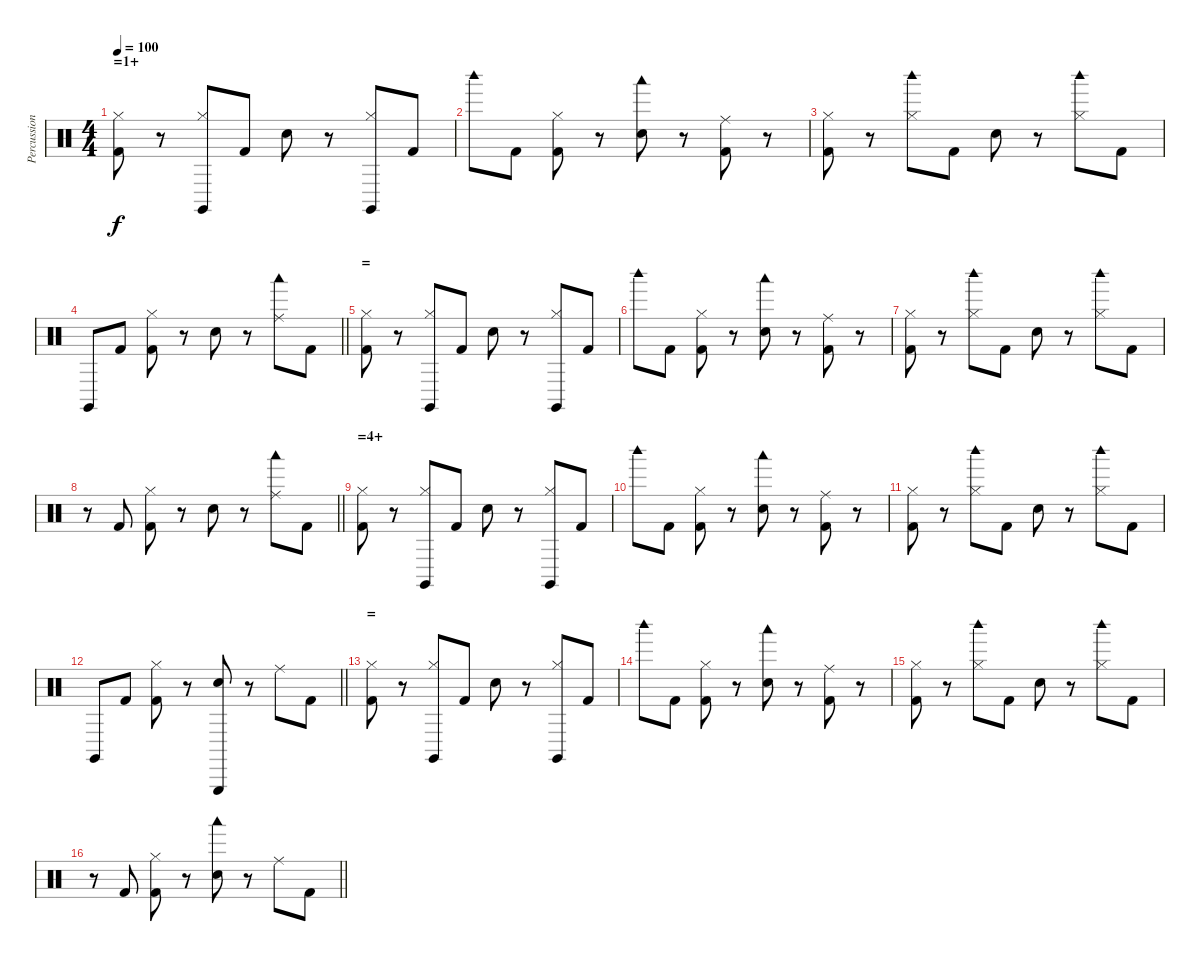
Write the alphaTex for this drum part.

\track ("Percussion" "Percussion") {instrument percussion}
\staff {score}
\articulation defaults
\ts (4 4)
\section ("" "=1+")
\tempo 100
\clef neutral
\ks c
("Kick (hit) 2" "Hi-Hat (closed)").8{dy f} r.8 ("Claves (hit)" "Hi-Hat (closed)").8 "Kick (hit) 2".8 "Electric Snare (hit)".8 r.8 ("Claves (hit)" "Hi-Hat (closed)").8 "Kick (hit) 2".8 |
"Woodblock high (hit)".8 "Kick (hit) 2".8 ("Kick (hit) 2" "Hi-Hat (closed)").8 r.8 ("Electric Snare (hit)" "Woodblock low (hit)").8 r.8 ("Kick (hit) 2" "Ride (middle)").8 r.8 |
("Kick (hit) 2" "Hi-Hat (closed)").8 r.8 ("Woodblock high (hit)" "Hi-Hat (closed)").8 "Kick (hit) 2".8 "Electric Snare (hit)".8 r.8 ("Woodblock high (hit)" "Hi-Hat (closed)").8 "Kick (hit) 2".8 |
\barLineRight lightlight "Claves (hit)".8 "Kick (hit) 2".8
("Kick (hit) 2" "Hi-Hat (closed)").8 r.8 "Electric Snare (hit)".8 r.8 ("Woodblock low (hit)" "Ride (middle)").8 "Kick (hit) 2".8 |
\section ("" "=")
("Kick (hit) 2" "Hi-Hat (closed)").8 r.8 ("Claves (hit)" "Hi-Hat (closed)").8 "Kick (hit) 2".8 "Electric Snare (hit)".8 r.8 ("Claves (hit)" "Hi-Hat (closed)").8 "Kick (hit) 2".8 |
"Woodblock high (hit)".8 "Kick (hit) 2".8 ("Kick (hit) 2" "Hi-Hat (closed)").8 r.8 ("Electric Snare (hit)" "Woodblock low (hit)").8 r.8 ("Kick (hit) 2" "Ride (middle)").8 r.8 |
("Kick (hit) 2" "Hi-Hat (closed)").8 r.8 ("Woodblock high (hit)" "Hi-Hat (closed)").8 "Kick (hit) 2".8 "Electric Snare (hit)".8 r.8 ("Woodblock high (hit)" "Hi-Hat (closed)").8 "Kick (hit) 2".8 |
\barLineRight lightlight
r.8 "Kick (hit) 2".8 ("Kick (hit) 2" "Hi-Hat (closed)").8 r.8 "Electric Snare (hit)".8 r.8 ("Woodblock low (hit)" "Ride (middle)").8 "Kick (hit) 2".8 |
\section ("" "=4+")
("Kick (hit) 2" "Hi-Hat (closed)").8 r.8 ("Claves (hit)" "Hi-Hat (closed)").8 "Kick (hit) 2".8 "Electric Snare (hit)".8 r.8 ("Claves (hit)" "Hi-Hat (closed)").8 "Kick (hit) 2".8 |
"Woodblock high (hit)".8 "Kick (hit) 2".8 ("Kick (hit) 2" "Hi-Hat (closed)").8 r.8 ("Electric Snare (hit)" "Woodblock low (hit)").8 r.8 ("Kick (hit) 2" "Ride (middle)").8 r.8 |
("Kick (hit) 2" "Hi-Hat (closed)").8 r.8 ("Woodblock high (hit)" "Hi-Hat (closed)").8 "Kick (hit) 2".8 "Electric Snare (hit)".8 r.8 ("Woodblock high (hit)" "Hi-Hat (closed)").8 "Kick (hit) 2".8 |
\barLineRight lightlight "Claves (hit)".8 "Kick (hit) 2".8
("Kick (hit) 2" "Hi-Hat (closed)").8 r.8 ("Electric Snare (hit)" "Triangle (hit)").8 r.8 "Ride (middle)".8 "Kick (hit) 2".8 |
\section ("" "=")
("Kick (hit) 2" "Hi-Hat (closed)").8 r.8 ("Claves (hit)" "Hi-Hat (closed)").8 "Kick (hit) 2".8 "Electric Snare (hit)".8 r.8 ("Claves (hit)" "Hi-Hat (closed)").8 "Kick (hit) 2".8 |
"Woodblock high (hit)".8 "Kick (hit) 2".8 ("Kick (hit) 2" "Hi-Hat (closed)").8 r.8 ("Electric Snare (hit)" "Woodblock low (hit)").8 r.8 ("Kick (hit) 2" "Ride (middle)").8 r.8 |
("Kick (hit) 2" "Hi-Hat (closed)").8 r.8 ("Woodblock high (hit)" "Hi-Hat (closed)").8 "Kick (hit) 2".8 "Electric Snare (hit)".8 r.8 ("Woodblock high (hit)" "Hi-Hat (closed)").8 "Kick (hit) 2".8 |
\barLineRight lightlight
r.8 "Kick (hit) 2".8 ("Kick (hit) 2" "Hi-Hat (closed)").8 r.8 ("Electric Snare (hit)" "Woodblock low (hit)").8 r.8 "Ride (middle)".8 "Kick (hit) 2".8
